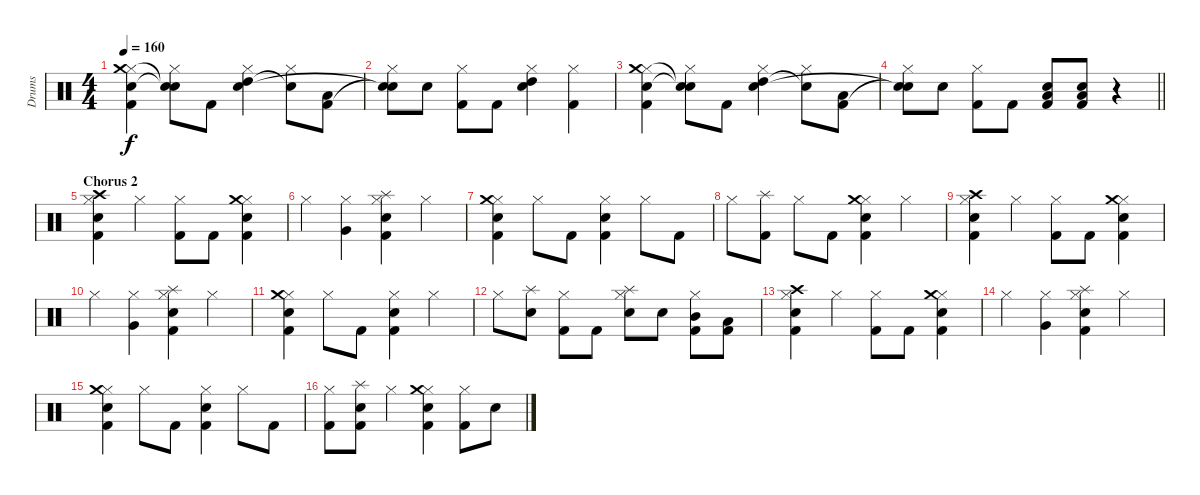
\track ("Drums" "Drums") {instrument percussion}
\staff {score}
\articulation defaults
\ts (4 4)
\tempo 160
\clef neutral
\ks c
("Hi-Hat (closed)" "Crash medium (hit)" "Snare (hit) 2" "Kick (hit) 2").4{dy f} ("Hi-Hat (closed)" "Snare (hit)"{t} "Snare (hit)"{t}).8 "Kick (hit) 2".8 ("Hi-Hat (closed)" "High Tom (hit)" "Snare (hit) 2").4 ("Hi-Hat (closed)" "Snare (hit)"{t}).8 ("Low Floor Tom (hit)" "Kick (hit) 2").8 |
("Hi-Hat (closed)" "Snare (hit)"{t} "Snare (hit)"{t}).8 "Snare (hit) 2".8 ("Hi-Hat (closed)" "Kick (hit) 2").8 "Kick (hit) 2".8 ("Hi-Hat (closed)" "High Tom (hit)" "Snare (hit) 2").4 ("Hi-Hat (closed)" "Kick (hit) 2").4 |
("Hi-Hat (closed)" "Crash medium (hit)" "Snare (hit) 2" "Kick (hit) 2").4 ("Hi-Hat (closed)" "Snare (hit)"{t} "Snare (hit)"{t}).8 "Kick (hit) 2".8 ("Hi-Hat (closed)" "High Tom (hit)" "Snare (hit) 2").4 ("Hi-Hat (closed)" "Snare (hit)"{t}).8 ("Low Floor Tom (hit)" "Kick (hit) 2").8 |
\barLineRight lightlight
("Hi-Hat (closed)" "Snare (hit)"{t} "Snare (hit)"{t}).8 "Snare (hit) 2".8 ("Hi-Hat (closed)" "Kick (hit) 2").8 "Kick (hit) 2".8 ("Low Floor Tom (hit)" "Electric Snare (hit)" "Kick (hit) 2").8 ("Low Floor Tom (hit)" "Electric Snare (hit)" "Kick (hit) 2").8 r.4 |
\section ("" "Chorus 2")
("Hi-Hat (closed)" "Crash high (hit)" "Snare (hit) 2" "Kick (hit) 2").4 "Hi-Hat (closed)".4 ("Hi-Hat (closed)" "Kick (hit) 2").8 "Kick (hit) 2".8 ("Hi-Hat (closed)" "Crash medium (hit)" "Snare (hit) 2" "Kick (hit) 2").4 |
"Hi-Hat (closed)".4 ("Hi-Hat (closed)" "Very Low Tom (hit)").4 ("Hi-Hat (closed)" "Splash (hit)" "Snare (hit) 2" "Kick (hit) 2").4 "Hi-Hat (closed)".4 |
("Hi-Hat (closed)" "Crash medium (hit)" "Snare (hit) 2" "Kick (hit) 2").4 "Hi-Hat (closed)".8 "Kick (hit) 2".8 ("Hi-Hat (closed)" "Snare (hit) 2" "Kick (hit) 2").4 "Hi-Hat (closed)".8 "Kick (hit) 2".8 |
"Hi-Hat (closed)".8 ("Splash (hit)" "Kick (hit) 2").8 "Hi-Hat (closed)".8 "Kick (hit) 2".8 ("Hi-Hat (closed)" "Crash medium (hit)" "Snare (hit) 2" "Kick (hit) 2").4 "Hi-Hat (closed)".4 |
("Hi-Hat (closed)" "Crash high (hit)" "Snare (hit) 2" "Kick (hit) 2").4 "Hi-Hat (closed)".4 ("Hi-Hat (closed)" "Kick (hit) 2").8 "Kick (hit) 2".8 ("Hi-Hat (closed)" "Crash medium (hit)" "Snare (hit) 2" "Kick (hit) 2").4 |
"Hi-Hat (closed)".4 ("Hi-Hat (closed)" "Very Low Tom (hit)").4 ("Hi-Hat (closed)" "Splash (hit)" "Snare (hit) 2" "Kick (hit) 2").4 "Hi-Hat (closed)".4 |
("Hi-Hat (closed)" "Crash medium (hit)" "Snare (hit) 2" "Kick (hit) 2").4 "Hi-Hat (closed)".8 "Kick (hit) 2".8 ("Hi-Hat (closed)" "Snare (hit) 2" "Kick (hit) 2").4 "Hi-Hat (closed)".4 |
"Hi-Hat (closed)".8 ("Splash (hit)" "Snare (hit) 2").8 ("Hi-Hat (closed)" "Kick (hit) 2").8 "Kick (hit) 2".8 ("Hi-Hat (closed)" "Splash (hit)" "Snare (hit) 2").8 "Snare (hit) 2".8 ("Hi-Hat (closed)" "Mid Tom (hit)" "Kick (hit) 2").8 ("Low Tom (hit)" "Kick (hit) 2").8 |
("Hi-Hat (closed)" "Crash high (hit)" "Snare (hit) 2" "Kick (hit) 2").4 "Hi-Hat (closed)".4 ("Hi-Hat (closed)" "Kick (hit) 2").8 "Kick (hit) 2".8 ("Hi-Hat (closed)" "Crash medium (hit)" "Snare (hit) 2" "Kick (hit) 2").4 |
"Hi-Hat (closed)".4 ("Hi-Hat (closed)" "Very Low Tom (hit)").4 ("Hi-Hat (closed)" "Splash (hit)" "Snare (hit) 2" "Kick (hit) 2").4 "Hi-Hat (closed)".4 |
("Hi-Hat (closed)" "Crash medium (hit)" "Snare (hit) 2" "Kick (hit) 2").4 "Hi-Hat (closed)".8 "Kick (hit) 2".8 ("Hi-Hat (closed)" "Snare (hit) 2" "Kick (hit) 2").4 "Hi-Hat (closed)".8 "Kick (hit) 2".8 |
("Hi-Hat (closed)" "Kick (hit) 2").8 ("Splash (hit)" "Snare (hit) 2" "Kick (hit) 2").8 "Hi-Hat (closed)".4 ("Hi-Hat (closed)" "Crash medium (hit)" "Snare (hit) 2" "Kick (hit) 2").4 ("Hi-Hat (closed)" "Kick (hit) 2").8 "Snare (hit) 2".8
